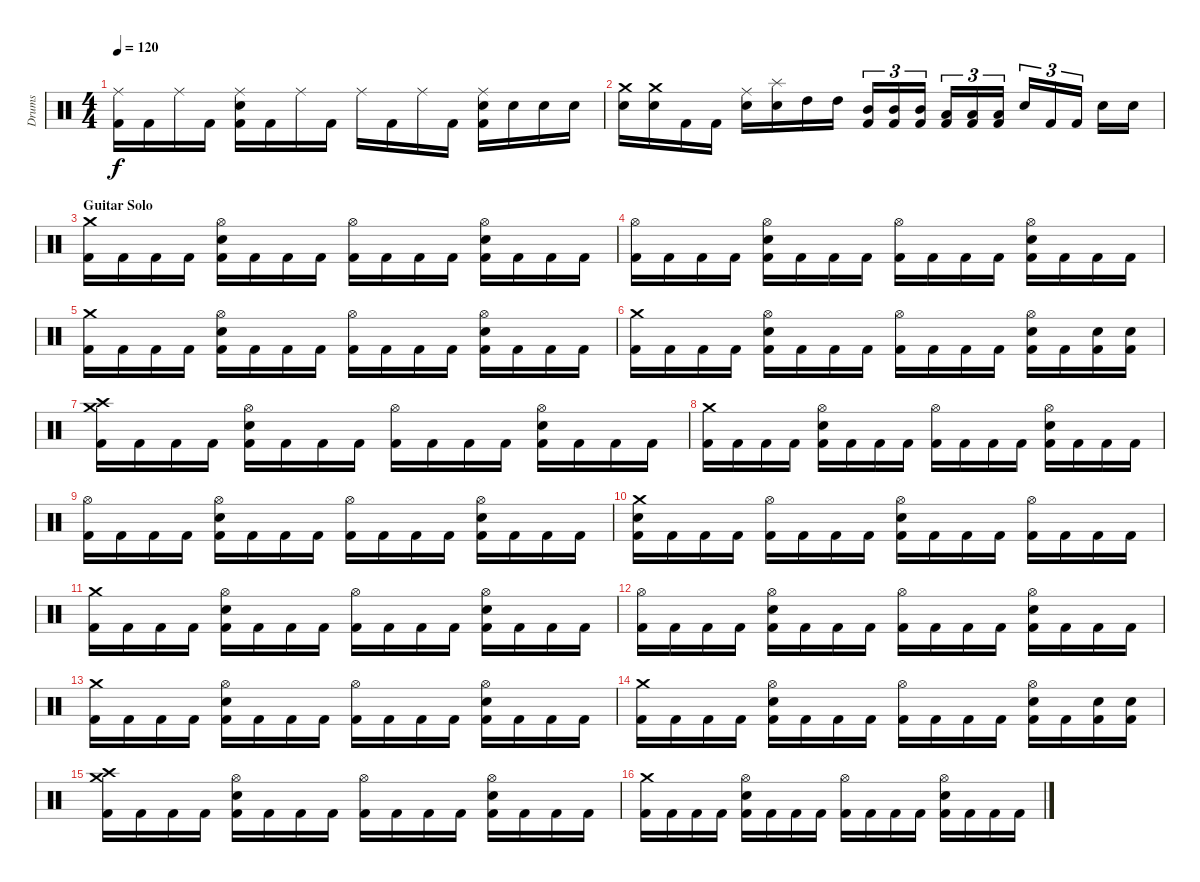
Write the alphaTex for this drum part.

\track ("Drums" "Drums") {instrument percussion}
\staff {score}
\articulation defaults
\ts (4 4)
\tempo 120
\clef neutral
\ks c
("Ride (middle)" "Kick (hit) 2").16{dy f} "Kick (hit) 2".16 "Ride (middle)".16 "Kick (hit) 2".16 ("Ride (middle)" "Electric Snare (hit)" "Kick (hit) 2").16 "Kick (hit) 2".16 "Ride (middle)".16 "Kick (hit) 2".16 "Ride (middle)".16 "Kick (hit) 2".16 "Ride (middle)".16 "Kick (hit) 2".16 ("Ride (middle)" "Electric Snare (hit)" "Kick (hit) 2").16 "Electric Snare (hit)".16 "Electric Snare (hit)".16 "Electric Snare (hit)".16 |
("Crash medium (hit)" "Electric Snare (hit)").16 ("Crash medium (hit)" "Electric Snare (hit)").16 "Kick (hit) 2".16 "Kick (hit) 2".16 ("Ride (middle)" "Electric Snare (hit)").16 ("Splash (hit)" "Electric Snare (hit)").16 "High Tom (hit)".16 "High Tom (hit)".16 ("Mid Tom (hit)" "Kick (hit) 2").16{tu (3 2)} ("Mid Tom (hit)" "Kick (hit) 2").16{tu (3 2)} ("Mid Tom (hit)" "Kick (hit) 2").16{tu (3 2)} ("Low Tom (hit)" "Kick (hit) 2").16{tu (3 2)} ("Low Tom (hit)" "Kick (hit) 2").16{tu (3 2)} ("Low Tom (hit)" "Kick (hit) 2").16{tu (3 2)} "Electric Snare (hit)".16{tu (3 2)} "Kick (hit) 2".16{tu (3 2)} "Kick (hit) 2".16{tu (3 2)} "Electric Snare (hit)".16 "Electric Snare (hit)".16 |
\section ("" "Guitar Solo")
("Crash medium (hit)" "Kick (hit) 2").16 "Kick (hit) 2".16 "Kick (hit) 2".16 "Kick (hit) 2".16 ("Hi-Hat (open)" "Electric Snare (hit)" "Kick (hit) 2").16 "Kick (hit) 2".16 "Kick (hit) 2".16 "Kick (hit) 2".16 ("Hi-Hat (open)" "Kick (hit) 2").16 "Kick (hit) 2".16 "Kick (hit) 2".16 "Kick (hit) 2".16 ("Hi-Hat (open)" "Electric Snare (hit)" "Kick (hit) 2").16 "Kick (hit) 2".16 "Kick (hit) 2".16 "Kick (hit) 2".16 |
("Hi-Hat (open)" "Kick (hit) 2").16 "Kick (hit) 2".16 "Kick (hit) 2".16 "Kick (hit) 2".16 ("Hi-Hat (open)" "Electric Snare (hit)" "Kick (hit) 2").16 "Kick (hit) 2".16 "Kick (hit) 2".16 "Kick (hit) 2".16 ("Hi-Hat (open)" "Kick (hit) 2").16 "Kick (hit) 2".16 "Kick (hit) 2".16 "Kick (hit) 2".16 ("Hi-Hat (open)" "Electric Snare (hit)" "Kick (hit) 2").16 "Kick (hit) 2".16 "Kick (hit) 2".16 "Kick (hit) 2".16 |
("Crash medium (hit)" "Kick (hit) 2").16 "Kick (hit) 2".16 "Kick (hit) 2".16 "Kick (hit) 2".16 ("Hi-Hat (open)" "Electric Snare (hit)" "Kick (hit) 2").16 "Kick (hit) 2".16 "Kick (hit) 2".16 "Kick (hit) 2".16 ("Hi-Hat (open)" "Kick (hit) 2").16 "Kick (hit) 2".16 "Kick (hit) 2".16 "Kick (hit) 2".16 ("Hi-Hat (open)" "Electric Snare (hit)" "Kick (hit) 2").16 "Kick (hit) 2".16 "Kick (hit) 2".16 "Kick (hit) 2".16 |
("Crash medium (hit)" "Kick (hit) 2").16 "Kick (hit) 2".16 "Kick (hit) 2".16 "Kick (hit) 2".16 ("Hi-Hat (open)" "Electric Snare (hit)" "Kick (hit) 2").16 "Kick (hit) 2".16 "Kick (hit) 2".16 "Kick (hit) 2".16 ("Hi-Hat (open)" "Kick (hit) 2").16 "Kick (hit) 2".16 "Kick (hit) 2".16 "Kick (hit) 2".16 ("Hi-Hat (open)" "Electric Snare (hit)" "Kick (hit) 2").16 "Kick (hit) 2".16 ("Electric Snare (hit)" "Kick (hit) 2").16 ("Electric Snare (hit)" "Kick (hit) 2").16 |
("Crash medium (hit)" "Crash high (hit)" "Kick (hit) 2").16 "Kick (hit) 2".16 "Kick (hit) 2".16 "Kick (hit) 2".16 ("Hi-Hat (open)" "Electric Snare (hit)" "Kick (hit) 2").16 "Kick (hit) 2".16 "Kick (hit) 2".16 "Kick (hit) 2".16 ("Hi-Hat (open)" "Kick (hit) 2").16 "Kick (hit) 2".16 "Kick (hit) 2".16 "Kick (hit) 2".16 ("Hi-Hat (open)" "Electric Snare (hit)" "Kick (hit) 2").16 "Kick (hit) 2".16 "Kick (hit) 2".16 "Kick (hit) 2".16 |
("Crash medium (hit)" "Kick (hit) 2").16 "Kick (hit) 2".16 "Kick (hit) 2".16 "Kick (hit) 2".16 ("Hi-Hat (open)" "Electric Snare (hit)" "Kick (hit) 2").16 "Kick (hit) 2".16 "Kick (hit) 2".16 "Kick (hit) 2".16 ("Hi-Hat (open)" "Kick (hit) 2").16 "Kick (hit) 2".16 "Kick (hit) 2".16 "Kick (hit) 2".16 ("Hi-Hat (open)" "Electric Snare (hit)" "Kick (hit) 2").16 "Kick (hit) 2".16 "Kick (hit) 2".16 "Kick (hit) 2".16 |
("Hi-Hat (open)" "Kick (hit) 2").16 "Kick (hit) 2".16 "Kick (hit) 2".16 "Kick (hit) 2".16 ("Hi-Hat (open)" "Electric Snare (hit)" "Kick (hit) 2").16 "Kick (hit) 2".16 "Kick (hit) 2".16 "Kick (hit) 2".16 ("Hi-Hat (open)" "Kick (hit) 2").16 "Kick (hit) 2".16 "Kick (hit) 2".16 "Kick (hit) 2".16 ("Hi-Hat (open)" "Electric Snare (hit)" "Kick (hit) 2").16 "Kick (hit) 2".16 "Kick (hit) 2".16 "Kick (hit) 2".16 |
("Crash medium (hit)" "Electric Snare (hit)" "Kick (hit) 2").16 "Kick (hit) 2".16 "Kick (hit) 2".16 "Kick (hit) 2".16 ("Hi-Hat (open)" "Kick (hit) 2").16 "Kick (hit) 2".16 "Kick (hit) 2".16 "Kick (hit) 2".16 ("Hi-Hat (open)" "Electric Snare (hit)" "Kick (hit) 2").16 "Kick (hit) 2".16 "Kick (hit) 2".16 "Kick (hit) 2".16 ("Hi-Hat (open)" "Kick (hit) 2").16 "Kick (hit) 2".16 "Kick (hit) 2".16 "Kick (hit) 2".16 |
("Crash medium (hit)" "Kick (hit) 2").16 "Kick (hit) 2".16 "Kick (hit) 2".16 "Kick (hit) 2".16 ("Hi-Hat (open)" "Electric Snare (hit)" "Kick (hit) 2").16 "Kick (hit) 2".16 "Kick (hit) 2".16 "Kick (hit) 2".16 ("Hi-Hat (open)" "Kick (hit) 2").16 "Kick (hit) 2".16 "Kick (hit) 2".16 "Kick (hit) 2".16 ("Hi-Hat (open)" "Electric Snare (hit)" "Kick (hit) 2").16 "Kick (hit) 2".16 "Kick (hit) 2".16 "Kick (hit) 2".16 |
("Hi-Hat (open)" "Kick (hit) 2").16 "Kick (hit) 2".16 "Kick (hit) 2".16 "Kick (hit) 2".16 ("Hi-Hat (open)" "Electric Snare (hit)" "Kick (hit) 2").16 "Kick (hit) 2".16 "Kick (hit) 2".16 "Kick (hit) 2".16 ("Hi-Hat (open)" "Kick (hit) 2").16 "Kick (hit) 2".16 "Kick (hit) 2".16 "Kick (hit) 2".16 ("Hi-Hat (open)" "Electric Snare (hit)" "Kick (hit) 2").16 "Kick (hit) 2".16 "Kick (hit) 2".16 "Kick (hit) 2".16 |
("Crash medium (hit)" "Kick (hit) 2").16 "Kick (hit) 2".16 "Kick (hit) 2".16 "Kick (hit) 2".16 ("Hi-Hat (open)" "Electric Snare (hit)" "Kick (hit) 2").16 "Kick (hit) 2".16 "Kick (hit) 2".16 "Kick (hit) 2".16 ("Hi-Hat (open)" "Kick (hit) 2").16 "Kick (hit) 2".16 "Kick (hit) 2".16 "Kick (hit) 2".16 ("Hi-Hat (open)" "Electric Snare (hit)" "Kick (hit) 2").16 "Kick (hit) 2".16 "Kick (hit) 2".16 "Kick (hit) 2".16 |
("Crash medium (hit)" "Kick (hit) 2").16 "Kick (hit) 2".16 "Kick (hit) 2".16 "Kick (hit) 2".16 ("Hi-Hat (open)" "Electric Snare (hit)" "Kick (hit) 2").16 "Kick (hit) 2".16 "Kick (hit) 2".16 "Kick (hit) 2".16 ("Hi-Hat (open)" "Kick (hit) 2").16 "Kick (hit) 2".16 "Kick (hit) 2".16 "Kick (hit) 2".16 ("Hi-Hat (open)" "Electric Snare (hit)" "Kick (hit) 2").16 "Kick (hit) 2".16 ("Electric Snare (hit)" "Kick (hit) 2").16 ("Electric Snare (hit)" "Kick (hit) 2").16 |
("Crash medium (hit)" "Crash high (hit)" "Kick (hit) 2").16 "Kick (hit) 2".16 "Kick (hit) 2".16 "Kick (hit) 2".16 ("Hi-Hat (open)" "Electric Snare (hit)" "Kick (hit) 2").16 "Kick (hit) 2".16 "Kick (hit) 2".16 "Kick (hit) 2".16 ("Hi-Hat (open)" "Kick (hit) 2").16 "Kick (hit) 2".16 "Kick (hit) 2".16 "Kick (hit) 2".16 ("Hi-Hat (open)" "Electric Snare (hit)" "Kick (hit) 2").16 "Kick (hit) 2".16 "Kick (hit) 2".16 "Kick (hit) 2".16 |
("Crash medium (hit)" "Kick (hit) 2").16 "Kick (hit) 2".16 "Kick (hit) 2".16 "Kick (hit) 2".16 ("Hi-Hat (open)" "Electric Snare (hit)" "Kick (hit) 2").16 "Kick (hit) 2".16 "Kick (hit) 2".16 "Kick (hit) 2".16 ("Hi-Hat (open)" "Kick (hit) 2").16 "Kick (hit) 2".16 "Kick (hit) 2".16 "Kick (hit) 2".16 ("Hi-Hat (open)" "Electric Snare (hit)" "Kick (hit) 2").16 "Kick (hit) 2".16 "Kick (hit) 2".16 "Kick (hit) 2".16
